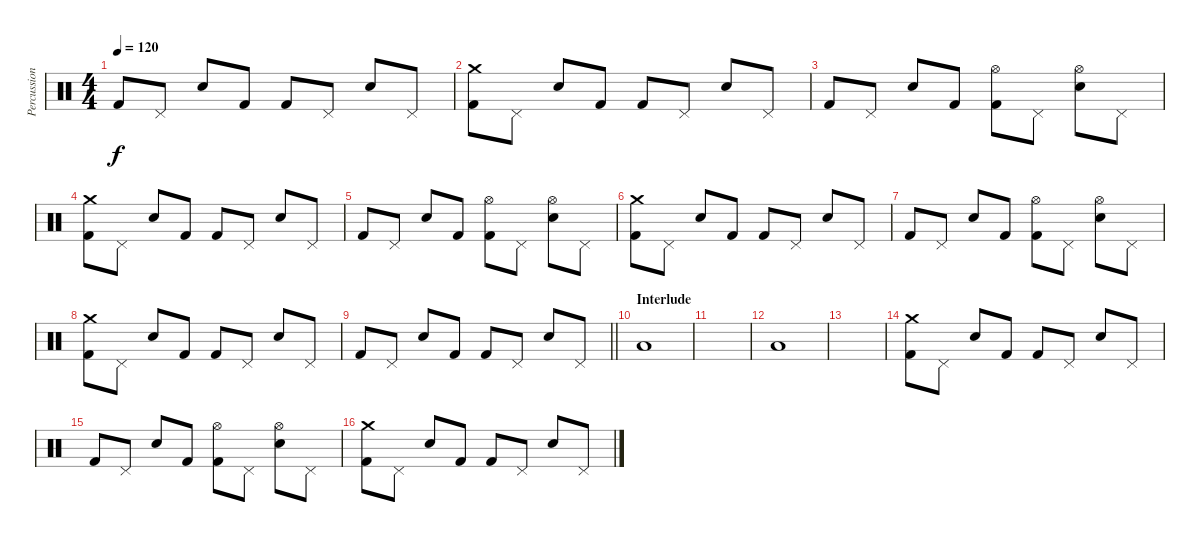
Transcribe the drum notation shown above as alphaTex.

\track ("Percussions" "Percussion") {instrument percussion}
\staff {score}
\articulation defaults
\ts (4 4)
\tempo 120
\clef neutral
\ks c "Kick (hit) 2".8{dy f} "Pedal Hi-Hat (hit)".8 "Snare (hit) 2".8 "Kick (hit) 2".8 "Kick (hit) 2".8 "Pedal Hi-Hat (hit)".8 "Snare (hit) 2".8 "Pedal Hi-Hat (hit)".8
|
("Crash medium (hit)" "Kick (hit) 2").8 "Pedal Hi-Hat (hit)".8 "Snare (hit) 2".8 "Kick (hit) 2".8 "Kick (hit) 2".8 "Pedal Hi-Hat (hit)".8 "Snare (hit) 2".8 "Pedal Hi-Hat (hit)".8 |
"Kick (hit) 2".8 "Pedal Hi-Hat (hit)".8 "Snare (hit) 2".8 "Kick (hit) 2".8 ("Hi-Hat (open)" "Kick (hit) 2").8 "Pedal Hi-Hat (hit)".8 ("Hi-Hat (open)" "Snare (hit) 2").8 "Pedal Hi-Hat (hit)".8 |
("Crash medium (hit)" "Kick (hit) 2").8 "Pedal Hi-Hat (hit)".8 "Snare (hit) 2".8 "Kick (hit) 2".8 "Kick (hit) 2".8 "Pedal Hi-Hat (hit)".8 "Snare (hit) 2".8 "Pedal Hi-Hat (hit)".8 |
"Kick (hit) 2".8 "Pedal Hi-Hat (hit)".8 "Snare (hit) 2".8 "Kick (hit) 2".8 ("Hi-Hat (open)" "Kick (hit) 2").8 "Pedal Hi-Hat (hit)".8 ("Hi-Hat (open)" "Snare (hit) 2").8 "Pedal Hi-Hat (hit)".8 |
("Crash medium (hit)" "Kick (hit) 2").8 "Pedal Hi-Hat (hit)".8 "Snare (hit) 2".8 "Kick (hit) 2".8 "Kick (hit) 2".8 "Pedal Hi-Hat (hit)".8 "Snare (hit) 2".8 "Pedal Hi-Hat (hit)".8 |
"Kick (hit) 2".8 "Pedal Hi-Hat (hit)".8 "Snare (hit) 2".8 "Kick (hit) 2".8 ("Hi-Hat (open)" "Kick (hit) 2").8 "Pedal Hi-Hat (hit)".8 ("Hi-Hat (open)" "Snare (hit) 2").8 "Pedal Hi-Hat (hit)".8 |
("Crash medium (hit)" "Kick (hit) 2").8 "Pedal Hi-Hat (hit)".8 "Snare (hit) 2".8 "Kick (hit) 2".8 "Kick (hit) 2".8 "Pedal Hi-Hat (hit)".8 "Snare (hit) 2".8 "Pedal Hi-Hat (hit)".8 |
\barLineRight lightlight "Kick (hit) 2".8 "Pedal Hi-Hat (hit)".8 "Snare (hit) 2".8 "Kick (hit) 2".8 "Kick (hit) 2".8 "Pedal Hi-Hat (hit)".8 "Snare (hit) 2".8 "Pedal Hi-Hat (hit)".8
|
\section ("" "Interlude")
"Low Tom (hit)".1 |
|
"Low Tom (hit)".1 |
|
("Crash medium (hit)" "Kick (hit) 2").8 "Pedal Hi-Hat (hit)".8 "Snare (hit) 2".8 "Kick (hit) 2".8 "Kick (hit) 2".8 "Pedal Hi-Hat (hit)".8 "Snare (hit) 2".8 "Pedal Hi-Hat (hit)".8 |
"Kick (hit) 2".8 "Pedal Hi-Hat (hit)".8 "Snare (hit) 2".8 "Kick (hit) 2".8 ("Hi-Hat (open)" "Kick (hit) 2").8 "Pedal Hi-Hat (hit)".8 ("Hi-Hat (open)" "Snare (hit) 2").8 "Pedal Hi-Hat (hit)".8 |
("Crash medium (hit)" "Kick (hit) 2").8 "Pedal Hi-Hat (hit)".8 "Snare (hit) 2".8 "Kick (hit) 2".8 "Kick (hit) 2".8 "Pedal Hi-Hat (hit)".8 "Snare (hit) 2".8 "Pedal Hi-Hat (hit)".8
